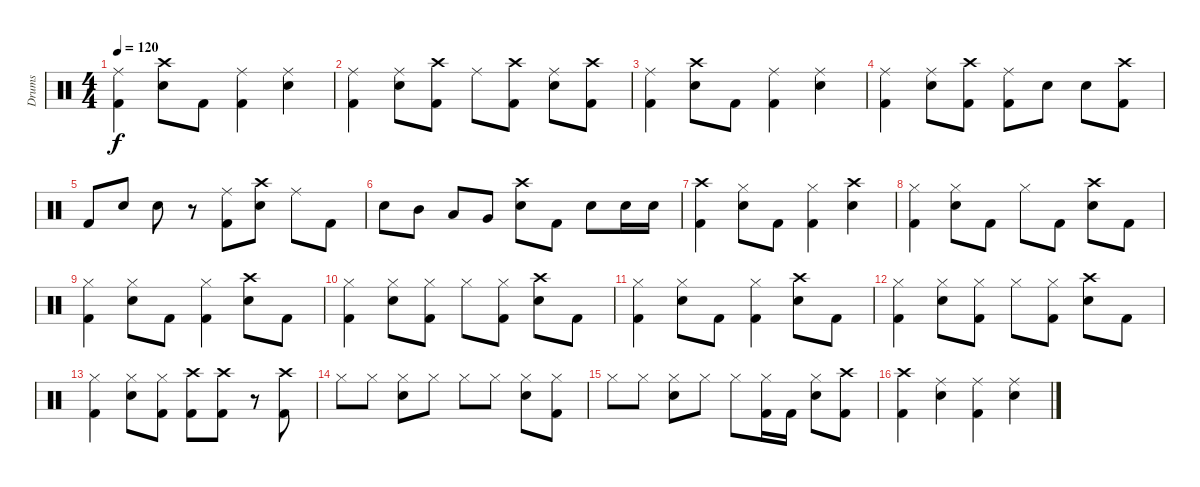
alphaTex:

\track ("Drums" "Drums") {instrument percussion}
\staff {score}
\articulation defaults
\ts (4 4)
\tempo 120
\clef neutral
\ks c
("Ride (middle)" "Kick (hit) 2").4{dy f} ("Crash high (hit)" "Electric Snare (hit)").8 "Kick (hit) 2".8 ("Ride (middle)" "Kick (hit) 2").4 ("Ride (middle)" "Electric Snare (hit)").4 |
("Ride (middle)" "Kick (hit) 2").4 ("Ride (middle)" "Electric Snare (hit)").8 ("Crash high (hit)" "Kick (hit) 2").8 "Ride (middle)".8 ("Crash high (hit)" "Kick (hit) 2").8 ("Ride (middle)" "Electric Snare (hit)").8 ("Crash high (hit)" "Kick (hit) 2").8 |
("Ride (middle)" "Kick (hit) 2").4 ("Crash high (hit)" "Electric Snare (hit)").8 "Kick (hit) 2".8 ("Ride (middle)" "Kick (hit) 2").4 ("Ride (middle)" "Electric Snare (hit)").4 |
("Ride (middle)" "Kick (hit) 2").4 ("Ride (middle)" "Electric Snare (hit)").8 ("Crash high (hit)" "Kick (hit) 2").8 ("Ride (middle)" "Kick (hit) 2").8 "Electric Snare (hit)".8 "Electric Snare (hit)".8 ("Crash high (hit)" "Kick (hit) 2").8 |
"Kick (hit) 2".8 "Electric Snare (hit)".8 "Electric Snare (hit)".8 r.8 ("Ride (middle)" "Kick (hit) 2").8 ("Crash high (hit)" "Electric Snare (hit)").8 "Ride (middle)".8 "Kick (hit) 2".8 |
"Electric Snare (hit)".8 "Mid Tom (hit)".8 "Low Tom (hit)".8 "Very Low Tom (hit)".8 ("Crash high (hit)" "Electric Snare (hit)").8 "Kick (hit) 2".8 "Electric Snare (hit)".8 "Electric Snare (hit)".16 "Electric Snare (hit)".16 |
("Crash high (hit)" "Kick (hit) 2").4 ("Hi-Hat (closed)" "Electric Snare (hit)").8 "Kick (hit) 2".8 ("Hi-Hat (closed)" "Kick (hit) 2").4 ("Crash high (hit)" "Electric Snare (hit)").4 |
("Hi-Hat (closed)" "Kick (hit) 2").4 ("Hi-Hat (closed)" "Electric Snare (hit)").8 "Kick (hit) 2".8 "Hi-Hat (closed)".8 "Kick (hit) 2".8 ("Crash high (hit)" "Electric Snare (hit)").8 "Kick (hit) 2".8 |
("Hi-Hat (closed)" "Kick (hit) 2").4 ("Hi-Hat (closed)" "Electric Snare (hit)").8 "Kick (hit) 2".8 ("Hi-Hat (closed)" "Kick (hit) 2").4 ("Crash high (hit)" "Electric Snare (hit)").8 "Kick (hit) 2".8 |
("Hi-Hat (closed)" "Kick (hit) 2").4 ("Hi-Hat (closed)" "Electric Snare (hit)").8 ("Hi-Hat (closed)" "Kick (hit) 2").8 "Hi-Hat (closed)".8 ("Hi-Hat (closed)" "Kick (hit) 2").8 ("Crash high (hit)" "Electric Snare (hit)").8 "Kick (hit) 2".8 |
("Hi-Hat (closed)" "Kick (hit) 2").4 ("Hi-Hat (closed)" "Electric Snare (hit)").8 "Kick (hit) 2".8 ("Hi-Hat (closed)" "Kick (hit) 2").4 ("Crash high (hit)" "Electric Snare (hit)").8 "Kick (hit) 2".8 |
("Hi-Hat (closed)" "Kick (hit) 2").4 ("Hi-Hat (closed)" "Electric Snare (hit)").8 ("Hi-Hat (closed)" "Kick (hit) 2").8 "Hi-Hat (closed)".8 ("Hi-Hat (closed)" "Kick (hit) 2").8 ("Crash high (hit)" "Electric Snare (hit)").8 "Kick (hit) 2".8 |
("Hi-Hat (closed)" "Kick (hit) 2").4 ("Hi-Hat (closed)" "Electric Snare (hit)").8 ("Hi-Hat (closed)" "Kick (hit) 2").8 ("Crash high (hit)" "Kick (hit) 2").8 ("Crash high (hit)" "Kick (hit) 2").8 r.8 ("Crash high (hit)" "Kick (hit) 2").8 |
"Hi-Hat (closed)".8 "Hi-Hat (closed)".8 ("Hi-Hat (closed)" "Electric Snare (hit)").8 "Hi-Hat (closed)".8 "Hi-Hat (closed)".8 "Hi-Hat (closed)".8 ("Hi-Hat (closed)" "Electric Snare (hit)").8 ("Hi-Hat (closed)" "Kick (hit) 2").8 |
"Hi-Hat (closed)".8 "Hi-Hat (closed)".8 ("Hi-Hat (closed)" "Electric Snare (hit)").8 "Hi-Hat (closed)".8 "Hi-Hat (closed)".8 ("Hi-Hat (closed)" "Kick (hit) 2").16 "Kick (hit) 2".16 ("Hi-Hat (closed)" "Electric Snare (hit)").8 ("Crash high (hit)" "Kick (hit) 2").8 |
("Crash high (hit)" "Kick (hit) 2").4 ("Ride (middle)" "Electric Snare (hit)").4 ("Ride (middle)" "Kick (hit) 2").4 ("Ride (middle)" "Electric Snare (hit)").4
